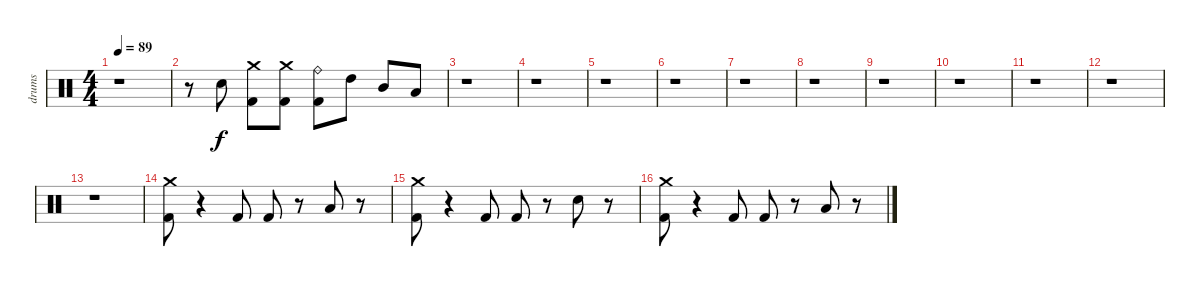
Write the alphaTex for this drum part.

\track ("drums" "drums") {instrument percussion}
\staff {score}
\articulation defaults
\ts (4 4)
\tempo 89
\clef neutral
\ks c
r.1{dy f} |
r.8 "Snare (hit) 2".8{volume 16} ("Kick (hit) 2" "Crash medium (hit)").8 ("Kick (hit) 2" "Crash medium (hit)").8 ("Kick (hit) 2" "Ride (bell)").8 "High Tom (hit)".8 "Mid Tom (hit)".8 "Low Tom (hit)".8 |
r.1 |
r.1 |
r.1 |
r.1 |
r.1 |
r.1 |
r.1 |
r.1 |
r.1 |
r.1 |
r.1 |
("Kick (hit) 2" "Crash medium (hit)").8 r.4 "Kick (hit) 2".8 "Kick (hit) 2".8 r.8 "Low Tom (hit)".8 r.8 |
("Kick (hit) 2" "Crash medium (hit)").8 r.4 "Kick (hit) 2".8 "Kick (hit) 2".8 r.8 "Snare (hit) 2".8 r.8 |
("Kick (hit) 2" "Crash medium (hit)").8 r.4 "Kick (hit) 2".8 "Kick (hit) 2".8 r.8 "Low Tom (hit)".8 r.8
